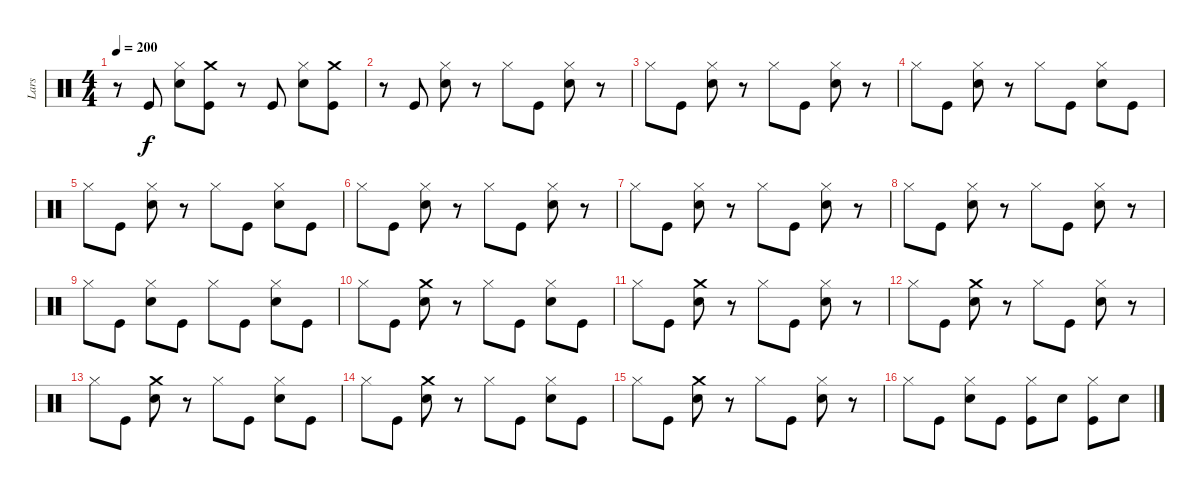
\track ("Lars" "Lars") {instrument percussion}
\staff {score}
\articulation defaults
\ts (4 4)
\tempo 200
\clef neutral
\ks c
r.8{dy f} "Kick (hit)".8 ("Hi-Hat (closed)" "Snare (hit) 2").8 ("Crash medium (hit)" "Kick (hit)").8 r.8 "Kick (hit)".8 ("Hi-Hat (closed)" "Snare (hit) 2").8 ("Crash medium (hit)" "Kick (hit)").8 |
r.8 "Kick (hit)".8 ("Hi-Hat (closed)" "Snare (hit) 2").8 r.8 "Hi-Hat (closed)".8 "Kick (hit)".8 ("Snare (hit) 2" "Hi-Hat (closed)").8 r.8 |
"Hi-Hat (closed)".8 "Kick (hit)".8 ("Hi-Hat (closed)" "Snare (hit) 2").8 r.8 "Hi-Hat (closed)".8 "Kick (hit)".8 ("Snare (hit) 2" "Hi-Hat (closed)").8 r.8 |
"Hi-Hat (closed)".8 "Kick (hit)".8 ("Hi-Hat (closed)" "Snare (hit) 2").8 r.8 "Hi-Hat (closed)".8 "Kick (hit)".8 ("Snare (hit) 2" "Hi-Hat (closed)").8 "Kick (hit)".8 |
"Hi-Hat (closed)".8 "Kick (hit)".8 ("Hi-Hat (closed)" "Snare (hit) 2").8 r.8 "Hi-Hat (closed)".8 "Kick (hit)".8 ("Snare (hit) 2" "Hi-Hat (closed)").8 "Kick (hit)".8 |
"Hi-Hat (closed)".8 "Kick (hit)".8 ("Hi-Hat (closed)" "Snare (hit) 2").8 r.8 "Hi-Hat (closed)".8 "Kick (hit)".8 ("Snare (hit) 2" "Hi-Hat (closed)").8 r.8 |
"Hi-Hat (closed)".8 "Kick (hit)".8 ("Hi-Hat (closed)" "Snare (hit) 2").8 r.8 "Hi-Hat (closed)".8 "Kick (hit)".8 ("Snare (hit) 2" "Hi-Hat (closed)").8 r.8 |
"Hi-Hat (closed)".8 "Kick (hit)".8 ("Hi-Hat (closed)" "Snare (hit) 2").8 r.8 "Hi-Hat (closed)".8 "Kick (hit)".8 ("Snare (hit) 2" "Hi-Hat (closed)").8 r.8 |
"Hi-Hat (closed)".8 "Kick (hit)".8 ("Hi-Hat (closed)" "Snare (hit) 2").8 "Kick (hit)".8 "Hi-Hat (closed)".8 "Kick (hit)".8 ("Snare (hit) 2" "Hi-Hat (closed)").8 "Kick (hit)".8 |
"Hi-Hat (closed)".8 "Kick (hit)".8 ("Crash medium (hit)" "Snare (hit) 2").8 r.8 "Hi-Hat (closed)".8 "Kick (hit)".8 ("Snare (hit) 2" "Hi-Hat (closed)").8 "Kick (hit)".8 |
"Hi-Hat (closed)".8 "Kick (hit)".8 ("Crash medium (hit)" "Snare (hit) 2").8 r.8 "Hi-Hat (closed)".8 "Kick (hit)".8 ("Snare (hit) 2" "Hi-Hat (closed)").8 r.8 |
"Hi-Hat (closed)".8 "Kick (hit)".8 ("Crash medium (hit)" "Snare (hit) 2").8 r.8 "Hi-Hat (closed)".8 "Kick (hit)".8 ("Snare (hit) 2" "Hi-Hat (closed)").8 r.8 |
"Hi-Hat (closed)".8 "Kick (hit)".8 ("Crash medium (hit)" "Snare (hit) 2").8 r.8 "Hi-Hat (closed)".8 "Kick (hit)".8 ("Snare (hit) 2" "Hi-Hat (closed)").8 "Kick (hit)".8 |
"Hi-Hat (closed)".8 "Kick (hit)".8 ("Crash medium (hit)" "Snare (hit) 2").8 r.8 "Hi-Hat (closed)".8 "Kick (hit)".8 ("Snare (hit) 2" "Hi-Hat (closed)").8 "Kick (hit)".8 |
"Hi-Hat (closed)".8 "Kick (hit)".8 ("Crash medium (hit)" "Snare (hit) 2").8 r.8 "Hi-Hat (closed)".8 "Kick (hit)".8 ("Snare (hit) 2" "Hi-Hat (closed)").8 r.8 |
"Hi-Hat (closed)".8 "Kick (hit)".8 ("Hi-Hat (closed)" "Snare (hit) 2").8 "Kick (hit)".8 ("Kick (hit)" "Hi-Hat (closed)").8 "Snare (hit) 2".8 ("Kick (hit)" "Hi-Hat (closed)").8 "Snare (hit) 2".8
